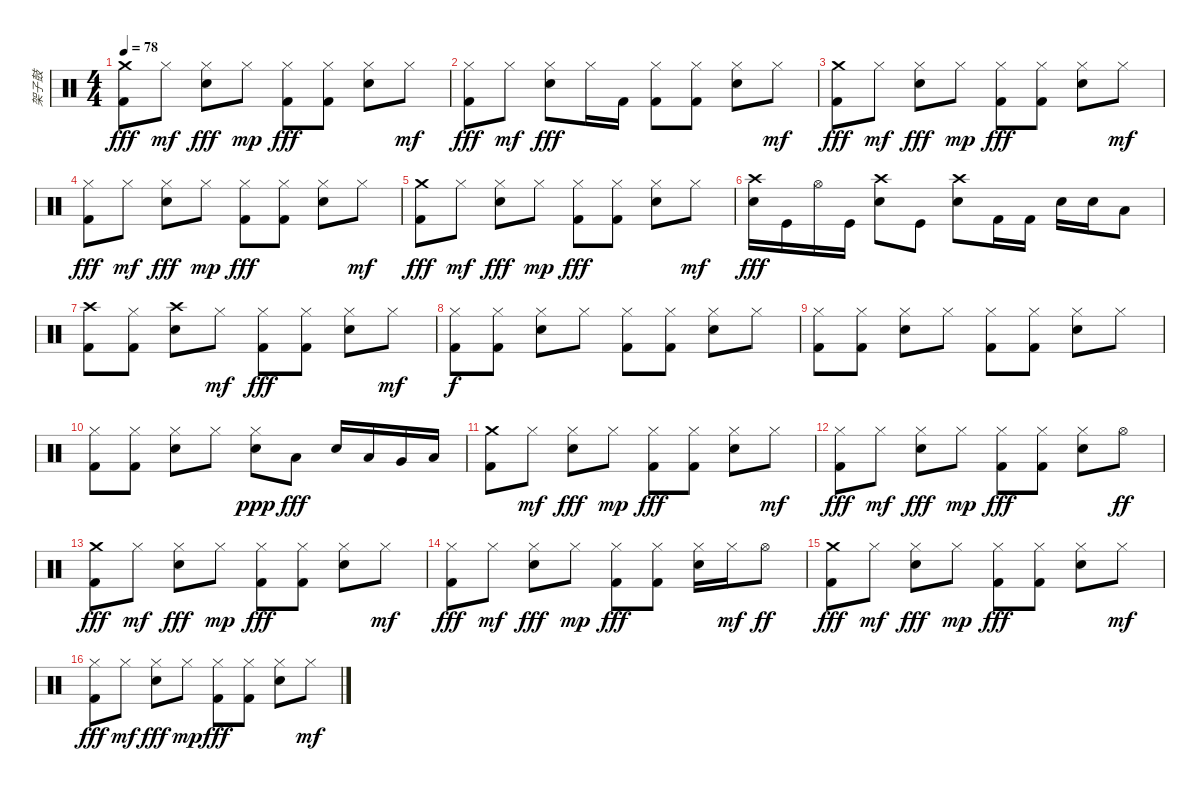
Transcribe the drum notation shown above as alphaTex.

\track ("架子鼓" "架子鼓") {instrument percussion}
\staff {score}
\articulation defaults
\ts (4 4)
\tempo 78
\clef neutral
\ks c
("Crash medium (hit)" "Kick (hit) 2").8{dy fff} "Hi-Hat (closed)".8{dy mf} ("Hi-Hat (closed)" "Electric Snare (hit)").8{dy fff} "Hi-Hat (closed)".8{dy mp} ("Hi-Hat (closed)" "Kick (hit) 2").8{dy fff} ("Hi-Hat (closed)" "Kick (hit) 2").8 ("Hi-Hat (closed)" "Electric Snare (hit)").8 "Hi-Hat (closed)".8{dy mf} |
("Hi-Hat (closed)" "Kick (hit) 2").8{dy fff} "Hi-Hat (closed)".8{dy mf} ("Hi-Hat (closed)" "Electric Snare (hit)").8{dy fff} "Hi-Hat (closed)".16 "Kick (hit) 2".16 ("Hi-Hat (closed)" "Kick (hit) 2").8 ("Hi-Hat (closed)" "Kick (hit) 2").8 ("Hi-Hat (closed)" "Electric Snare (hit)").8 "Hi-Hat (closed)".8{dy mf} |
("Crash medium (hit)" "Kick (hit) 2").8{dy fff} "Hi-Hat (closed)".8{dy mf} ("Hi-Hat (closed)" "Electric Snare (hit)").8{dy fff} "Hi-Hat (closed)".8{dy mp} ("Hi-Hat (closed)" "Kick (hit) 2").8{dy fff} ("Hi-Hat (closed)" "Kick (hit) 2").8 ("Hi-Hat (closed)" "Electric Snare (hit)").8 "Hi-Hat (closed)".8{dy mf} |
("Hi-Hat (closed)" "Kick (hit) 2").8{dy fff} "Hi-Hat (closed)".8{dy mf} ("Hi-Hat (closed)" "Electric Snare (hit)").8{dy fff} "Hi-Hat (closed)".8{dy mp} ("Hi-Hat (closed)" "Kick (hit) 2").8{dy fff} ("Hi-Hat (closed)" "Kick (hit) 2").8 ("Hi-Hat (closed)" "Electric Snare (hit)").8 "Hi-Hat (closed)".8{dy mf} |
("Crash medium (hit)" "Kick (hit) 2").8{dy fff} "Hi-Hat (closed)".8{dy mf} ("Hi-Hat (closed)" "Electric Snare (hit)").8{dy fff} "Hi-Hat (closed)".8{dy mp} ("Hi-Hat (closed)" "Kick (hit) 2").8{dy fff} ("Hi-Hat (closed)" "Kick (hit) 2").8 ("Hi-Hat (closed)" "Electric Snare (hit)").8 "Hi-Hat (closed)".8{dy mf} |
("Crash high (hit)" "Electric Snare (hit)").16{dy fff} "Kick (hit)".16 "Hi-Hat (open)".16 "Kick (hit)".16 ("Crash high (hit)" "Electric Snare (hit)").8 "Kick (hit)".8 ("Crash high (hit)" "Electric Snare (hit)").8 "Kick (hit) 2".16 "Kick (hit) 2".16 "Electric Snare (hit)".16 "Electric Snare (hit)".16 "Low Tom (hit)".8 |
("Crash high (hit)" "Kick (hit) 2").8 ("Hi-Hat (closed)" "Kick (hit) 2").8 ("Crash high (hit)" "Electric Snare (hit)").8 "Hi-Hat (closed)".8{dy mf} ("Hi-Hat (closed)" "Kick (hit) 2").8{dy fff} ("Hi-Hat (closed)" "Kick (hit) 2").8 ("Hi-Hat (closed)" "Electric Snare (hit)").8 "Hi-Hat (closed)".8{dy mf} |
("Hi-Hat (closed)" "Kick (hit) 2").8{dy f} ("Hi-Hat (closed)" "Kick (hit) 2").8 ("Hi-Hat (closed)" "Electric Snare (hit)").8 "Hi-Hat (closed)".8 ("Hi-Hat (closed)" "Kick (hit) 2").8 ("Hi-Hat (closed)" "Kick (hit) 2").8 ("Hi-Hat (closed)" "Electric Snare (hit)").8 "Hi-Hat (closed)".8 |
("Hi-Hat (closed)" "Kick (hit) 2").8 ("Hi-Hat (closed)" "Kick (hit) 2").8 ("Hi-Hat (closed)" "Electric Snare (hit)").8 "Hi-Hat (closed)".8 ("Hi-Hat (closed)" "Kick (hit) 2").8 ("Hi-Hat (closed)" "Kick (hit) 2").8 ("Hi-Hat (closed)" "Electric Snare (hit)").8 "Hi-Hat (closed)".8 |
("Hi-Hat (closed)" "Kick (hit) 2").8 ("Hi-Hat (closed)" "Kick (hit) 2").8 ("Hi-Hat (closed)" "Electric Snare (hit)").8 "Hi-Hat (closed)".8 ("Electric Snare (hit)" "Hi-Hat (closed)").8{dy ppp} "Low Tom (hit)".8{dy fff} "Electric Snare (hit)".16 "Low Tom (hit)".16 "Very Low Tom (hit)".16 "Low Floor Tom (hit)".16 |
("Crash medium (hit)" "Kick (hit) 2").8 "Hi-Hat (closed)".8{dy mf} ("Hi-Hat (closed)" "Electric Snare (hit)").8{dy fff} "Hi-Hat (closed)".8{dy mp} ("Hi-Hat (closed)" "Kick (hit) 2").8{dy fff} ("Hi-Hat (closed)" "Kick (hit) 2").8 ("Hi-Hat (closed)" "Electric Snare (hit)").8 "Hi-Hat (closed)".8{dy mf} |
("Hi-Hat (closed)" "Kick (hit) 2").8{dy fff} "Hi-Hat (closed)".8{dy mf} ("Hi-Hat (closed)" "Electric Snare (hit)").8{dy fff} "Hi-Hat (closed)".8{dy mp} ("Hi-Hat (closed)" "Kick (hit) 2").8{dy fff} ("Hi-Hat (closed)" "Kick (hit) 2").8 ("Hi-Hat (closed)" "Electric Snare (hit)").8 "Hi-Hat (open)".8{dy ff} |
("Crash medium (hit)" "Kick (hit) 2").8{dy fff} "Hi-Hat (closed)".8{dy mf} ("Hi-Hat (closed)" "Electric Snare (hit)").8{dy fff} "Hi-Hat (closed)".8{dy mp} ("Hi-Hat (closed)" "Kick (hit) 2").8{dy fff} ("Hi-Hat (closed)" "Kick (hit) 2").8 ("Hi-Hat (closed)" "Electric Snare (hit)").8 "Hi-Hat (closed)".8{dy mf} |
("Hi-Hat (closed)" "Kick (hit) 2").8{dy fff} "Hi-Hat (closed)".8{dy mf} ("Hi-Hat (closed)" "Electric Snare (hit)").8{dy fff} "Hi-Hat (closed)".8{dy mp} ("Hi-Hat (closed)" "Kick (hit) 2").8{dy fff} ("Hi-Hat (closed)" "Kick (hit) 2").8 ("Hi-Hat (closed)" "Electric Snare (hit)").16 "Hi-Hat (closed)".16{dy mf} "Hi-Hat (open)".8{dy ff} |
("Crash medium (hit)" "Kick (hit) 2").8{dy fff} "Hi-Hat (closed)".8{dy mf} ("Hi-Hat (closed)" "Electric Snare (hit)").8{dy fff} "Hi-Hat (closed)".8{dy mp} ("Hi-Hat (closed)" "Kick (hit) 2").8{dy fff} ("Hi-Hat (closed)" "Kick (hit) 2").8 ("Hi-Hat (closed)" "Electric Snare (hit)").8 "Hi-Hat (closed)".8{dy mf} |
("Hi-Hat (closed)" "Kick (hit) 2").8{dy fff} "Hi-Hat (closed)".8{dy mf} ("Hi-Hat (closed)" "Electric Snare (hit)").8{dy fff} "Hi-Hat (closed)".8{dy mp} ("Hi-Hat (closed)" "Kick (hit) 2").8{dy fff} ("Hi-Hat (closed)" "Kick (hit) 2").8 ("Hi-Hat (closed)" "Electric Snare (hit)").8 "Hi-Hat (closed)".8{dy mf}
